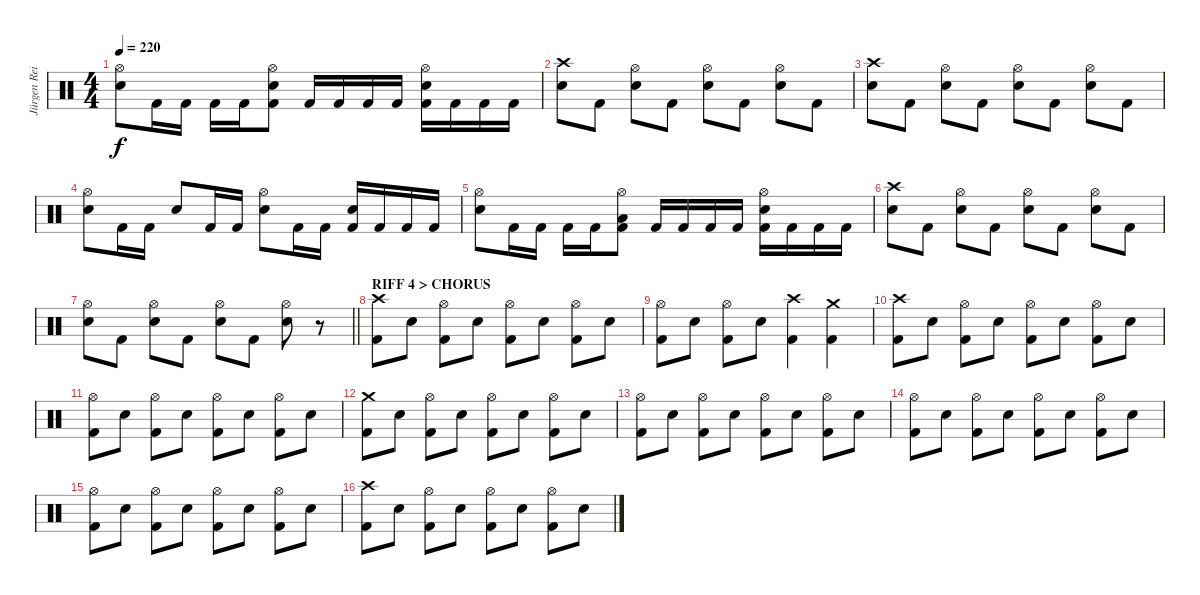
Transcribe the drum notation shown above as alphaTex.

\track ("Jürgen Reil" "Jürgen Rei") {instrument percussion}
\staff {score}
\articulation defaults
\ts (4 4)
\tempo 220
\clef neutral
\ks c
("Hi-Hat (open)" "Electric Snare (hit)").8{dy f} "Kick (hit) 2".16 "Kick (hit) 2".16 "Kick (hit) 2".16 "Kick (hit) 2".16 ("Hi-Hat (open)" "Electric Snare (hit)" "Kick (hit) 2").8 "Kick (hit) 2".16 "Kick (hit) 2".16 "Kick (hit) 2".16 "Kick (hit) 2".16 ("Hi-Hat (open)" "Electric Snare (hit)" "Kick (hit) 2").16 "Kick (hit) 2".16 "Kick (hit) 2".16 "Kick (hit) 2".16 |
("Crash high (hit)" "Electric Snare (hit)").8 "Kick (hit) 2".8 ("Hi-Hat (open)" "Electric Snare (hit)").8 "Kick (hit) 2".8 ("Hi-Hat (open)" "Electric Snare (hit)").8 "Kick (hit) 2".8 ("Hi-Hat (open)" "Electric Snare (hit)").8 "Kick (hit) 2".8 |
("Crash high (hit)" "Electric Snare (hit)").8 "Kick (hit) 2".8 ("Hi-Hat (open)" "Electric Snare (hit)").8 "Kick (hit) 2".8 ("Hi-Hat (open)" "Electric Snare (hit)").8 "Kick (hit) 2".8 ("Hi-Hat (open)" "Electric Snare (hit)").8 "Kick (hit) 2".8 |
("Hi-Hat (open)" "Electric Snare (hit)").8 "Kick (hit) 2".16 "Kick (hit) 2".16 "Electric Snare (hit)".8 "Kick (hit) 2".16 "Kick (hit) 2".16 ("Hi-Hat (open)" "Electric Snare (hit)").8 "Kick (hit) 2".16 "Kick (hit) 2".16 ("Electric Snare (hit)" "Kick (hit) 2").16 "Kick (hit) 2".16 "Kick (hit) 2".16 "Kick (hit) 2".16 |
("Hi-Hat (open)" "Electric Snare (hit)").8 "Kick (hit) 2".16 "Kick (hit) 2".16 "Kick (hit) 2".16 "Kick (hit) 2".16 ("Hi-Hat (open)" "Low Tom (hit)" "Kick (hit) 2").8 "Kick (hit) 2".16 "Kick (hit) 2".16 "Kick (hit) 2".16 "Kick (hit) 2".16 ("Hi-Hat (open)" "Electric Snare (hit)" "Kick (hit) 2").16 "Kick (hit) 2".16 "Kick (hit) 2".16 "Kick (hit) 2".16 |
("Crash high (hit)" "Electric Snare (hit)").8 "Kick (hit) 2".8 ("Hi-Hat (open)" "Electric Snare (hit)").8 "Kick (hit) 2".8 ("Hi-Hat (open)" "Electric Snare (hit)").8 "Kick (hit) 2".8 ("Hi-Hat (open)" "Electric Snare (hit)").8 "Kick (hit) 2".8 |
\barLineRight lightlight
("Hi-Hat (open)" "Electric Snare (hit)").8 "Kick (hit) 2".8 ("Hi-Hat (open)" "Electric Snare (hit)").8 "Kick (hit) 2".8 ("Hi-Hat (open)" "Electric Snare (hit)").8 "Kick (hit) 2".8 ("Hi-Hat (open)" "Electric Snare (hit)").8 r.8 |
\section ("" "RIFF 4 > CHORUS")
("Crash high (hit)" "Kick (hit) 2").8 "Electric Snare (hit)".8 ("Hi-Hat (open)" "Kick (hit) 2").8 "Electric Snare (hit)".8 ("Hi-Hat (open)" "Kick (hit) 2").8 "Electric Snare (hit)".8 ("Hi-Hat (open)" "Kick (hit) 2").8 "Electric Snare (hit)".8 |
("Hi-Hat (open)" "Kick (hit) 2").8 "Electric Snare (hit)".8 ("Hi-Hat (open)" "Kick (hit) 2").8 "Electric Snare (hit)".8 ("Crash high (hit)" "Kick (hit) 2").4 ("Crash medium (hit)" "Kick (hit) 2").4 |
("Crash high (hit)" "Kick (hit) 2").8 "Electric Snare (hit)".8 ("Hi-Hat (open)" "Kick (hit) 2").8 "Electric Snare (hit)".8 ("Hi-Hat (open)" "Kick (hit) 2").8 "Electric Snare (hit)".8 ("Hi-Hat (open)" "Kick (hit) 2").8 "Electric Snare (hit)".8 |
("Hi-Hat (open)" "Kick (hit) 2").8 "Electric Snare (hit)".8 ("Hi-Hat (open)" "Kick (hit) 2").8 "Electric Snare (hit)".8 ("Hi-Hat (open)" "Kick (hit) 2").8 "Electric Snare (hit)".8 ("Hi-Hat (open)" "Kick (hit) 2").8 "Electric Snare (hit)".8 |
("Crash medium (hit)" "Kick (hit) 2").8 "Electric Snare (hit)".8 ("Hi-Hat (open)" "Kick (hit) 2").8 "Electric Snare (hit)".8 ("Hi-Hat (open)" "Kick (hit) 2").8 "Electric Snare (hit)".8 ("Hi-Hat (open)" "Kick (hit) 2").8 "Electric Snare (hit)".8 |
("Hi-Hat (open)" "Kick (hit) 2").8 "Electric Snare (hit)".8 ("Hi-Hat (open)" "Kick (hit) 2").8 "Electric Snare (hit)".8 ("Hi-Hat (open)" "Kick (hit) 2").8 "Electric Snare (hit)".8 ("Hi-Hat (open)" "Kick (hit) 2").8 "Electric Snare (hit)".8 |
("Hi-Hat (open)" "Kick (hit) 2").8 "Electric Snare (hit)".8 ("Hi-Hat (open)" "Kick (hit) 2").8 "Electric Snare (hit)".8 ("Hi-Hat (open)" "Kick (hit) 2").8 "Electric Snare (hit)".8 ("Hi-Hat (open)" "Kick (hit) 2").8 "Electric Snare (hit)".8 |
("Hi-Hat (open)" "Kick (hit) 2").8 "Electric Snare (hit)".8 ("Hi-Hat (open)" "Kick (hit) 2").8 "Electric Snare (hit)".8 ("Hi-Hat (open)" "Kick (hit) 2").8 "Electric Snare (hit)".8 ("Hi-Hat (open)" "Kick (hit) 2").8 "Electric Snare (hit)".8 |
("Crash high (hit)" "Kick (hit) 2").8 "Electric Snare (hit)".8 ("Hi-Hat (open)" "Kick (hit) 2").8 "Electric Snare (hit)".8 ("Hi-Hat (open)" "Kick (hit) 2").8 "Electric Snare (hit)".8 ("Hi-Hat (open)" "Kick (hit) 2").8 "Electric Snare (hit)".8
